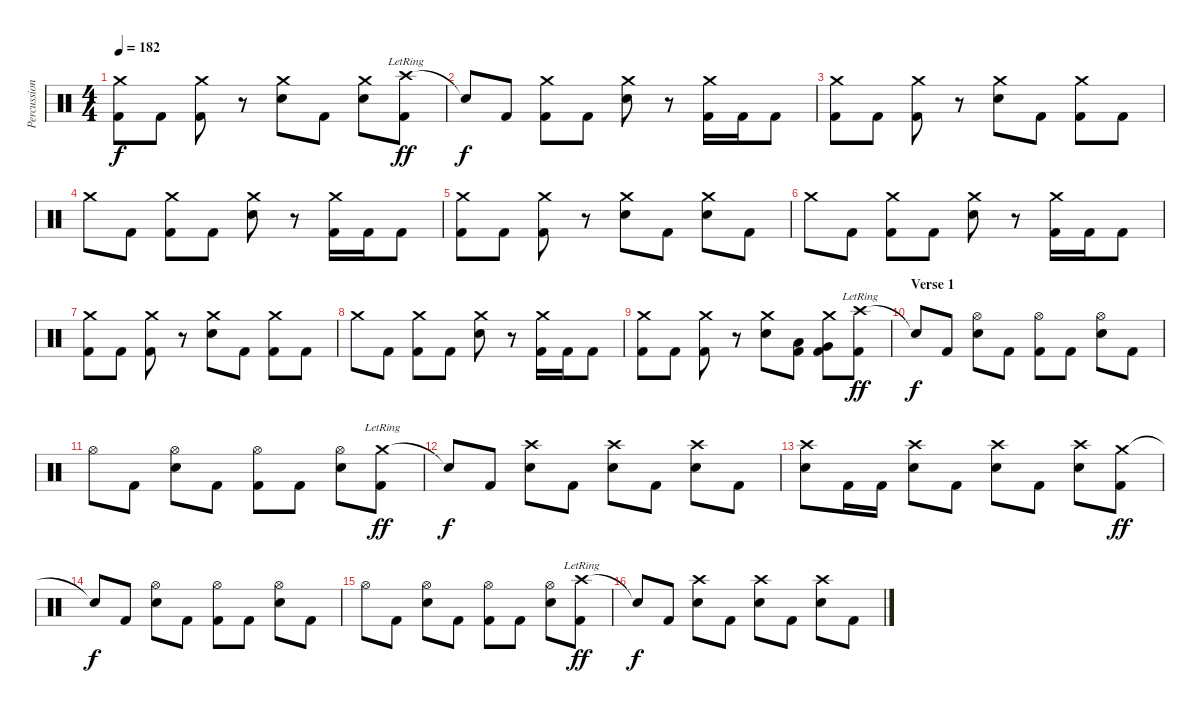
\track ("Percussions" "Percussion") {instrument percussion}
\staff {score}
\articulation defaults
\ts (4 4)
\tempo 182
\clef neutral
\ks c
("Crash medium (hit)" "Kick (hit) 2").8{dy f} "Kick (hit) 2".8 ("Crash medium (hit)" "Kick (hit) 2").8 r.8 ("Crash medium (hit)" "Electric Snare (hit)").8 "Kick (hit) 2".8 ("Crash medium (hit)" "Electric Snare (hit)").8 ("Crash high (hit)"{lr} "Kick (hit) 2").8{dy ff} |
"Snare (hit)"{t}.8{dy f} "Kick (hit) 2".8 ("Crash medium (hit)" "Kick (hit) 2").8 "Kick (hit) 2".8 ("Crash medium (hit)" "Electric Snare (hit)").8 r.8 ("Crash medium (hit)" "Kick (hit) 2").16 "Kick (hit) 2".16 "Kick (hit) 2".8 |
("Crash medium (hit)" "Kick (hit) 2").8 "Kick (hit) 2".8 ("Crash medium (hit)" "Kick (hit) 2").8 r.8 ("Crash medium (hit)" "Electric Snare (hit)").8 "Kick (hit) 2".8 ("Crash medium (hit)" "Kick (hit) 2").8 "Kick (hit) 2".8 |
"Crash medium (hit)".8 "Kick (hit) 2".8 ("Crash medium (hit)" "Kick (hit) 2").8 "Kick (hit) 2".8 ("Crash medium (hit)" "Electric Snare (hit)").8 r.8 ("Crash medium (hit)" "Kick (hit) 2").16 "Kick (hit) 2".16 "Kick (hit) 2".8 |
("Crash medium (hit)" "Kick (hit) 2").8 "Kick (hit) 2".8 ("Crash medium (hit)" "Kick (hit) 2").8 r.8 ("Crash medium (hit)" "Electric Snare (hit)").8 "Kick (hit) 2".8 ("Crash medium (hit)" "Electric Snare (hit)").8 "Kick (hit) 2".8 |
"Crash medium (hit)".8 "Kick (hit) 2".8 ("Crash medium (hit)" "Kick (hit) 2").8 "Kick (hit) 2".8 ("Crash medium (hit)" "Electric Snare (hit)").8 r.8 ("Crash medium (hit)" "Kick (hit) 2").16 "Kick (hit) 2".16 "Kick (hit) 2".8 |
("Crash medium (hit)" "Kick (hit) 2").8 "Kick (hit) 2".8 ("Crash medium (hit)" "Kick (hit) 2").8 r.8 ("Crash medium (hit)" "Electric Snare (hit)").8 "Kick (hit) 2".8 ("Crash medium (hit)" "Kick (hit) 2").8 "Kick (hit) 2".8 |
"Crash medium (hit)".8 "Kick (hit) 2".8 ("Crash medium (hit)" "Kick (hit) 2").8 "Kick (hit) 2".8 ("Crash medium (hit)" "Electric Snare (hit)").8 r.8 ("Crash medium (hit)" "Kick (hit) 2").16 "Kick (hit) 2".16 "Kick (hit) 2".8 |
("Crash medium (hit)" "Kick (hit) 2").8 "Kick (hit) 2".8 ("Crash medium (hit)" "Kick (hit) 2").8 r.8 ("Crash medium (hit)" "Electric Snare (hit)").8 ("Low Tom (hit)" "Kick (hit) 2").8 ("Crash medium (hit)" "Very Low Tom (hit)" "Kick (hit) 2").8 ("Crash high (hit)"{lr} "Kick (hit) 2").8{dy ff} |
\section ("" "Verse 1")
"Snare (hit)"{t}.8{dy f} "Kick (hit) 2".8 ("Hi-Hat (open)" "Electric Snare (hit)").8 "Kick (hit) 2".8 ("Hi-Hat (open)" "Kick (hit) 2").8 "Kick (hit) 2".8 ("Hi-Hat (open)" "Electric Snare (hit)").8 "Kick (hit) 2".8 |
"Hi-Hat (open)".8 "Kick (hit) 2".8 ("Hi-Hat (open)" "Electric Snare (hit)").8 "Kick (hit) 2".8 ("Hi-Hat (open)" "Kick (hit) 2").8 "Kick (hit) 2".8 ("Hi-Hat (open)" "Electric Snare (hit)").8 ("Crash medium (hit)"{lr} "Kick (hit) 2").8{dy ff} |
"Snare (hit)"{t}.8{dy f} "Kick (hit) 2".8 ("Crash high (hit)" "Electric Snare (hit)").8 "Kick (hit) 2".8 ("Crash high (hit)" "Electric Snare (hit)").8 "Kick (hit) 2".8 ("Crash high (hit)" "Electric Snare (hit)").8 "Kick (hit) 2".8 |
("Crash high (hit)" "Electric Snare (hit)").8 "Kick (hit) 2".16 "Kick (hit) 2".16 ("Crash high (hit)" "Electric Snare (hit)").8 "Kick (hit) 2".8 ("Crash high (hit)" "Electric Snare (hit)").8 "Kick (hit) 2".8 ("Crash high (hit)" "Electric Snare (hit)").8 ("Crash medium (hit)" "Kick (hit) 2").8{dy ff} |
"Snare (hit)"{t}.8{dy f} "Kick (hit) 2".8 ("Hi-Hat (open)" "Electric Snare (hit)").8 "Kick (hit) 2".8 ("Hi-Hat (open)" "Kick (hit) 2").8 "Kick (hit) 2".8 ("Hi-Hat (open)" "Electric Snare (hit)").8 "Kick (hit) 2".8 |
"Hi-Hat (open)".8 "Kick (hit) 2".8 ("Hi-Hat (open)" "Electric Snare (hit)").8 "Kick (hit) 2".8 ("Hi-Hat (open)" "Kick (hit) 2").8 "Kick (hit) 2".8 ("Hi-Hat (open)" "Electric Snare (hit)").8 ("Crash high (hit)"{lr} "Kick (hit) 2").8{dy ff} |
"Snare (hit)"{t}.8{dy f} "Kick (hit) 2".8 ("Crash high (hit)" "Electric Snare (hit)").8 "Kick (hit) 2".8 ("Crash high (hit)" "Electric Snare (hit)").8 "Kick (hit) 2".8 ("Crash high (hit)" "Electric Snare (hit)").8 "Kick (hit) 2".8
